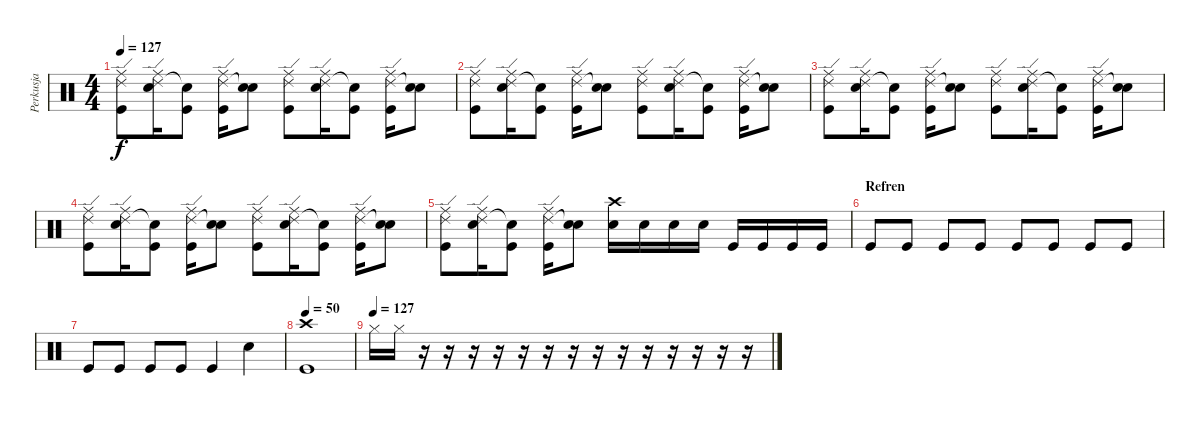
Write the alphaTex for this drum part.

\track ("Perkusja" "Perkusja") {instrument percussion}
\staff {score}
\articulation defaults
\ts (4 4)
\tempo 127
\clef neutral
\ks c
("Kick (hit)" "Ride (edge) 2" "Ride (middle)").8{dy f} ("Snare (hit) 2" "Ride (edge) 2" "Ride (middle)").16 ("Kick (hit)" "Snare (hit)"{t}).8 ("Kick (hit)" "Ride (edge) 2" "Ride (middle)").16 ("Snare (hit) 2" "Snare (hit)"{t}).8 ("Kick (hit)" "Ride (edge) 2" "Ride (middle)").8 ("Snare (hit) 2" "Ride (edge) 2" "Ride (middle)").16 ("Kick (hit)" "Snare (hit)"{t}).8 ("Kick (hit)" "Ride (edge) 2" "Ride (middle)").16 ("Snare (hit) 2" "Snare (hit)"{t}).8 |
("Kick (hit)" "Ride (edge) 2" "Ride (middle)").8 ("Snare (hit) 2" "Ride (edge) 2" "Ride (middle)").16 ("Kick (hit)" "Snare (hit)"{t}).8 ("Kick (hit)" "Ride (edge) 2" "Ride (middle)").16 ("Snare (hit) 2" "Snare (hit)"{t}).8 ("Kick (hit)" "Ride (edge) 2" "Ride (middle)").8 ("Snare (hit) 2" "Ride (edge) 2" "Ride (middle)").16 ("Kick (hit)" "Snare (hit)"{t}).8 ("Kick (hit)" "Ride (edge) 2" "Ride (middle)").16 ("Snare (hit) 2" "Snare (hit)"{t}).8 |
("Kick (hit)" "Ride (edge) 2" "Ride (middle)").8 ("Snare (hit) 2" "Ride (edge) 2" "Ride (middle)").16 ("Kick (hit)" "Snare (hit)"{t}).8 ("Kick (hit)" "Ride (edge) 2" "Ride (middle)").16 ("Snare (hit) 2" "Snare (hit)"{t}).8 ("Kick (hit)" "Ride (edge) 2" "Ride (middle)").8 ("Snare (hit) 2" "Ride (edge) 2" "Ride (middle)").16 ("Kick (hit)" "Snare (hit)"{t}).8 ("Kick (hit)" "Ride (edge) 2" "Ride (middle)").16 ("Snare (hit) 2" "Snare (hit)"{t}).8 |
("Kick (hit)" "Ride (edge) 2" "Ride (middle)").8 ("Snare (hit) 2" "Ride (edge) 2" "Ride (middle)").16 ("Kick (hit)" "Snare (hit)"{t}).8 ("Kick (hit)" "Ride (edge) 2" "Ride (middle)").16 ("Snare (hit) 2" "Snare (hit)"{t}).8 ("Kick (hit)" "Ride (edge) 2" "Ride (middle)").8 ("Snare (hit) 2" "Ride (edge) 2" "Ride (middle)").16 ("Kick (hit)" "Snare (hit)"{t}).8 ("Kick (hit)" "Ride (edge) 2" "Ride (middle)").16 ("Snare (hit) 2" "Snare (hit)"{t}).8 |
("Kick (hit)" "Ride (edge) 2" "Ride (middle)").8 ("Snare (hit) 2" "Ride (edge) 2" "Ride (middle)").16 ("Kick (hit)" "Snare (hit)"{t}).8 ("Kick (hit)" "Ride (edge) 2" "Ride (middle)").16 ("Snare (hit) 2" "Snare (hit)"{t}).8 ("Snare (hit) 2" "Crash high (hit)").16 "Snare (hit) 2".16 "Snare (hit) 2".16 "Snare (hit) 2".16 "Kick (hit)".16 "Kick (hit)".16 "Kick (hit)".16 "Kick (hit)".16 |
\section ("" "Refren")
"Kick (hit)".8 "Kick (hit)".8 "Kick (hit)".8 "Kick (hit)".8 "Kick (hit)".8 "Kick (hit)".8 "Kick (hit)".8 "Kick (hit)".8 |
"Kick (hit)".8 "Kick (hit)".8 "Kick (hit)".8 "Kick (hit)".8 "Kick (hit)".4 "Snare (hit) 2".4 |
\tempo 50
("Kick (hit)" "Crash high (hit)").1 |
\tempo (127)
"Hi-Hat (closed)".16 "Hi-Hat (closed)".16 r.16 r.16 r.16 r.16 r.16 r.16 r.16 r.16 r.16 r.16 r.16 r.16 r.16 r.16
